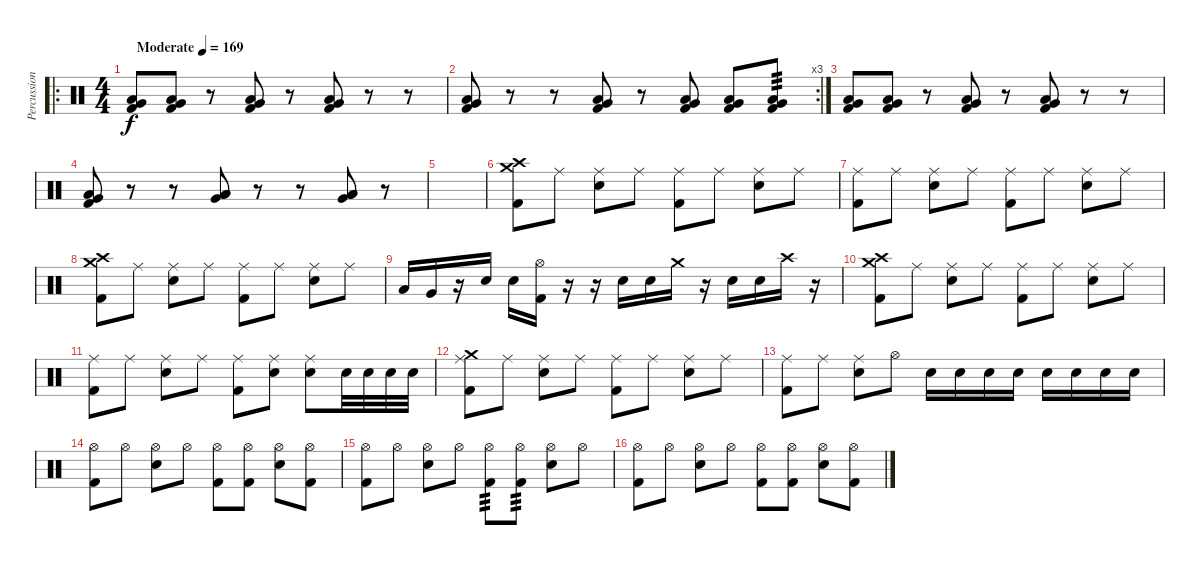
\track ("Percussion" "Percussion") {instrument percussion}
\staff {score}
\articulation defaults
\ro
\ts (4 4)
\tempo (169 "Moderate")
\clef neutral
\ks c
("Low Tom (hit)" "Very Low Tom (hit)" "Kick (hit) 2").8{dy f} ("Low Tom (hit)" "Very Low Tom (hit)" "Kick (hit) 2").8 r.8 ("Low Tom (hit)" "Very Low Tom (hit)" "Kick (hit) 2").8 r.8 ("Low Tom (hit)" "Very Low Tom (hit)" "Kick (hit) 2").8 r.8 r.8 |
\rc 3
("Low Tom (hit)" "Very Low Tom (hit)" "Kick (hit) 2").8 r.8 r.8 ("Low Tom (hit)" "Very Low Tom (hit)" "Kick (hit) 2").8 r.8 ("Low Tom (hit)" "Very Low Tom (hit)" "Kick (hit) 2").8 ("Low Tom (hit)" "Very Low Tom (hit)" "Kick (hit) 2").8 ("Low Tom (hit)" "Very Low Tom (hit)" "Kick (hit) 2").8{tp 3} |
("Low Tom (hit)" "Very Low Tom (hit)" "Kick (hit) 2").8 ("Low Tom (hit)" "Very Low Tom (hit)" "Kick (hit) 2").8 r.8 ("Low Tom (hit)" "Very Low Tom (hit)" "Kick (hit) 2").8 r.8 ("Low Tom (hit)" "Very Low Tom (hit)" "Kick (hit) 2").8 r.8 r.8 |
("Low Tom (hit)" "Very Low Tom (hit)" "Kick (hit) 2").8 r.8 r.8 ("Low Tom (hit)" "Very Low Tom (hit)" "Low Tom (hit)").8 r.8 r.8 ("Low Tom (hit)" "Very Low Tom (hit)" "Low Tom (hit)").8 r.8 |
|
("Crash high (hit)" "Crash medium (hit)" "Kick (hit) 2").8 "Ride (middle)".8 ("Ride (middle)" "Electric Snare (hit)").8 "Ride (middle)".8 ("Ride (middle)" "Kick (hit) 2").8 "Ride (middle)".8 ("Ride (middle)" "Electric Snare (hit)").8 "Ride (middle)".8 |
("Ride (middle)" "Kick (hit) 2").8 "Ride (middle)".8 ("Ride (middle)" "Electric Snare (hit)").8 "Ride (middle)".8 ("Ride (middle)" "Kick (hit) 2").8 "Ride (middle)".8 ("Ride (middle)" "Electric Snare (hit)").8 "Ride (middle)".8 |
("Crash high (hit)" "Crash medium (hit)" "Kick (hit) 2").8 "Ride (middle)".8 ("Ride (middle)" "Electric Snare (hit)").8 "Ride (middle)".8 ("Ride (middle)" "Kick (hit) 2").8 "Ride (middle)".8 ("Ride (middle)" "Electric Snare (hit)").8 "Ride (middle)".8 |
"Low Tom (hit)".16 "Very Low Tom (hit)".16 r.16 "Electric Snare (hit)".16 "Electric Snare (hit)".16 ("Hi-Hat (open)" "Kick (hit) 2").16 r.16 r.16 "Electric Snare (hit)".16 "Electric Snare (hit)".16 "Crash medium (hit)".16 r.16 "Electric Snare (hit)".16 "Electric Snare (hit)".16 "Crash high (hit)".16 r.16 |
("Crash high (hit)" "Crash medium (hit)" "Kick (hit) 2").8 "Ride (middle)".8 ("Ride (middle)" "Electric Snare (hit)").8 "Ride (middle)".8 ("Ride (middle)" "Kick (hit) 2").8 "Ride (middle)".8 ("Ride (middle)" "Electric Snare (hit)").8 "Ride (middle)".8 |
("Ride (middle)" "Kick (hit) 2").8 "Ride (middle)".8 ("Ride (middle)" "Electric Snare (hit)").8 "Ride (middle)".8 ("Ride (middle)" "Kick (hit) 2").8 ("Ride (middle)" "Electric Snare (hit)").8 ("Ride (middle)" "Electric Snare (hit)").8 "Electric Snare (hit)".32 "Electric Snare (hit)".32 "Electric Snare (hit)".32 "Electric Snare (hit)".32 |
("Ride (middle)" "Crash medium (hit)" "Kick (hit) 2").8 "Ride (middle)".8 ("Ride (middle)" "Electric Snare (hit)").8 "Ride (middle)".8 ("Ride (middle)" "Kick (hit) 2").8 "Ride (middle)".8 ("Ride (middle)" "Electric Snare (hit)").8 "Ride (middle)".8 |
("Ride (middle)" "Kick (hit) 2").8 "Ride (middle)".8 ("Ride (middle)" "Electric Snare (hit)").8 "Hi-Hat (open)".8 "Electric Snare (hit)".16 "Electric Snare (hit)".16 "Electric Snare (hit)".16 "Electric Snare (hit)".16 "Electric Snare (hit)".16 "Electric Snare (hit)".16 "Electric Snare (hit)".16 "Electric Snare (hit)".16 |
("Hi-Hat (open)" "Kick (hit) 2").8 "Hi-Hat (open)".8 ("Hi-Hat (open)" "Electric Snare (hit)").8 "Hi-Hat (open)".8 ("Hi-Hat (open)" "Kick (hit) 2").8 ("Hi-Hat (open)" "Kick (hit) 2").8 ("Hi-Hat (open)" "Electric Snare (hit)").8 ("Hi-Hat (open)" "Kick (hit) 2").8 |
("Hi-Hat (open)" "Kick (hit) 2").8 "Hi-Hat (open)".8 ("Hi-Hat (open)" "Electric Snare (hit)").8 "Hi-Hat (open)".8 ("Hi-Hat (open)" "Kick (hit) 2").8{tp 3} ("Hi-Hat (open)" "Kick (hit) 2").8{tp 3} ("Hi-Hat (open)" "Electric Snare (hit)").8 "Hi-Hat (open)".8 |
("Hi-Hat (open)" "Kick (hit) 2").8 "Hi-Hat (open)".8 ("Hi-Hat (open)" "Electric Snare (hit)").8 "Hi-Hat (open)".8 ("Hi-Hat (open)" "Kick (hit) 2").8 ("Hi-Hat (open)" "Kick (hit) 2").8 ("Hi-Hat (open)" "Electric Snare (hit)").8 ("Hi-Hat (open)" "Kick (hit) 2").8
